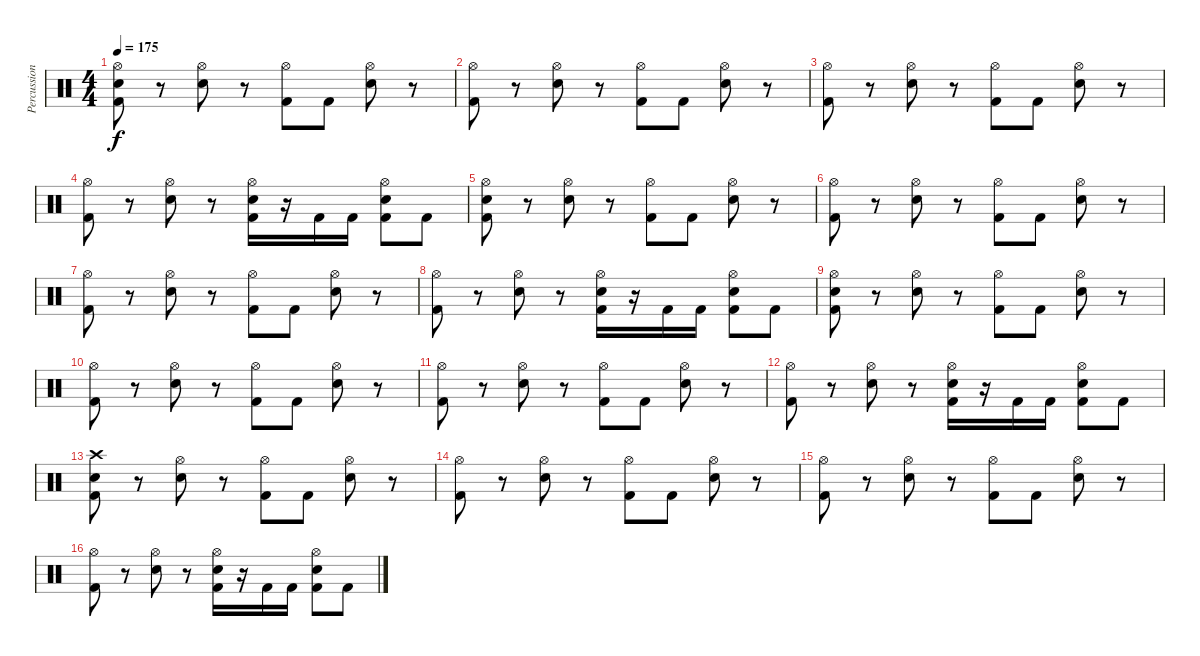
\track ("Percussions" "Percussion") {instrument percussion}
\staff {score}
\articulation defaults
\ts (4 4)
\tempo 175
\clef neutral
\ks c
("Kick (hit) 2" "Electric Snare (hit)" "Hi-Hat (open)").8{dy f} r.8 ("Electric Snare (hit)" "Hi-Hat (open)").8 r.8 ("Kick (hit) 2" "Hi-Hat (open)").8 "Kick (hit) 2".8 ("Electric Snare (hit)" "Hi-Hat (open)").8 r.8 |
("Kick (hit) 2" "Hi-Hat (open)").8 r.8 ("Electric Snare (hit)" "Hi-Hat (open)").8 r.8 ("Kick (hit) 2" "Hi-Hat (open)").8 "Kick (hit) 2".8 ("Electric Snare (hit)" "Hi-Hat (open)").8 r.8 |
("Kick (hit) 2" "Hi-Hat (open)").8 r.8 ("Electric Snare (hit)" "Hi-Hat (open)").8 r.8 ("Kick (hit) 2" "Hi-Hat (open)").8 "Kick (hit) 2".8 ("Electric Snare (hit)" "Hi-Hat (open)").8 r.8 |
("Kick (hit) 2" "Hi-Hat (open)").8 r.8 ("Electric Snare (hit)" "Hi-Hat (open)").8 r.8 ("Kick (hit) 2" "Electric Snare (hit)" "Hi-Hat (open)").16 r.16 "Kick (hit) 2".16 "Kick (hit) 2".16 ("Kick (hit) 2" "Electric Snare (hit)" "Hi-Hat (open)").8 "Kick (hit) 2".8 |
("Kick (hit) 2" "Electric Snare (hit)" "Hi-Hat (open)").8 r.8 ("Electric Snare (hit)" "Hi-Hat (open)").8 r.8 ("Kick (hit) 2" "Hi-Hat (open)").8 "Kick (hit) 2".8 ("Electric Snare (hit)" "Hi-Hat (open)").8 r.8 |
("Kick (hit) 2" "Hi-Hat (open)").8 r.8 ("Electric Snare (hit)" "Hi-Hat (open)").8 r.8 ("Kick (hit) 2" "Hi-Hat (open)").8 "Kick (hit) 2".8 ("Electric Snare (hit)" "Hi-Hat (open)").8 r.8 |
("Kick (hit) 2" "Hi-Hat (open)").8 r.8 ("Electric Snare (hit)" "Hi-Hat (open)").8 r.8 ("Kick (hit) 2" "Hi-Hat (open)").8 "Kick (hit) 2".8 ("Electric Snare (hit)" "Hi-Hat (open)").8 r.8 |
("Kick (hit) 2" "Hi-Hat (open)").8 r.8 ("Electric Snare (hit)" "Hi-Hat (open)").8 r.8 ("Kick (hit) 2" "Electric Snare (hit)" "Hi-Hat (open)").16 r.16 "Kick (hit) 2".16 "Kick (hit) 2".16 ("Kick (hit) 2" "Electric Snare (hit)" "Hi-Hat (open)").8 "Kick (hit) 2".8 |
("Kick (hit) 2" "Electric Snare (hit)" "Hi-Hat (open)").8 r.8 ("Electric Snare (hit)" "Hi-Hat (open)").8 r.8 ("Kick (hit) 2" "Hi-Hat (open)").8 "Kick (hit) 2".8 ("Electric Snare (hit)" "Hi-Hat (open)").8 r.8 |
("Kick (hit) 2" "Hi-Hat (open)").8 r.8 ("Electric Snare (hit)" "Hi-Hat (open)").8 r.8 ("Kick (hit) 2" "Hi-Hat (open)").8 "Kick (hit) 2".8 ("Electric Snare (hit)" "Hi-Hat (open)").8 r.8 |
("Kick (hit) 2" "Hi-Hat (open)").8 r.8 ("Electric Snare (hit)" "Hi-Hat (open)").8 r.8 ("Kick (hit) 2" "Hi-Hat (open)").8 "Kick (hit) 2".8 ("Electric Snare (hit)" "Hi-Hat (open)").8 r.8 |
("Kick (hit) 2" "Hi-Hat (open)").8 r.8 ("Electric Snare (hit)" "Hi-Hat (open)").8 r.8 ("Kick (hit) 2" "Electric Snare (hit)" "Hi-Hat (open)").16 r.16 "Kick (hit) 2".16 "Kick (hit) 2".16 ("Kick (hit) 2" "Electric Snare (hit)" "Hi-Hat (open)").8 "Kick (hit) 2".8 |
("Kick (hit) 2" "Electric Snare (hit)" "Crash high (hit)").8 r.8 ("Electric Snare (hit)" "Hi-Hat (open)").8 r.8 ("Kick (hit) 2" "Hi-Hat (open)").8 "Kick (hit) 2".8 ("Electric Snare (hit)" "Hi-Hat (open)").8 r.8 |
("Kick (hit) 2" "Hi-Hat (open)").8 r.8 ("Electric Snare (hit)" "Hi-Hat (open)").8 r.8 ("Kick (hit) 2" "Hi-Hat (open)").8 "Kick (hit) 2".8 ("Electric Snare (hit)" "Hi-Hat (open)").8 r.8 |
("Kick (hit) 2" "Hi-Hat (open)").8 r.8 ("Electric Snare (hit)" "Hi-Hat (open)").8 r.8 ("Kick (hit) 2" "Hi-Hat (open)").8 "Kick (hit) 2".8 ("Electric Snare (hit)" "Hi-Hat (open)").8 r.8 |
("Kick (hit) 2" "Hi-Hat (open)").8 r.8 ("Electric Snare (hit)" "Hi-Hat (open)").8 r.8 ("Kick (hit) 2" "Electric Snare (hit)" "Hi-Hat (open)").16 r.16 "Kick (hit) 2".16 "Kick (hit) 2".16 ("Kick (hit) 2" "Electric Snare (hit)" "Hi-Hat (open)").8 "Kick (hit) 2".8
